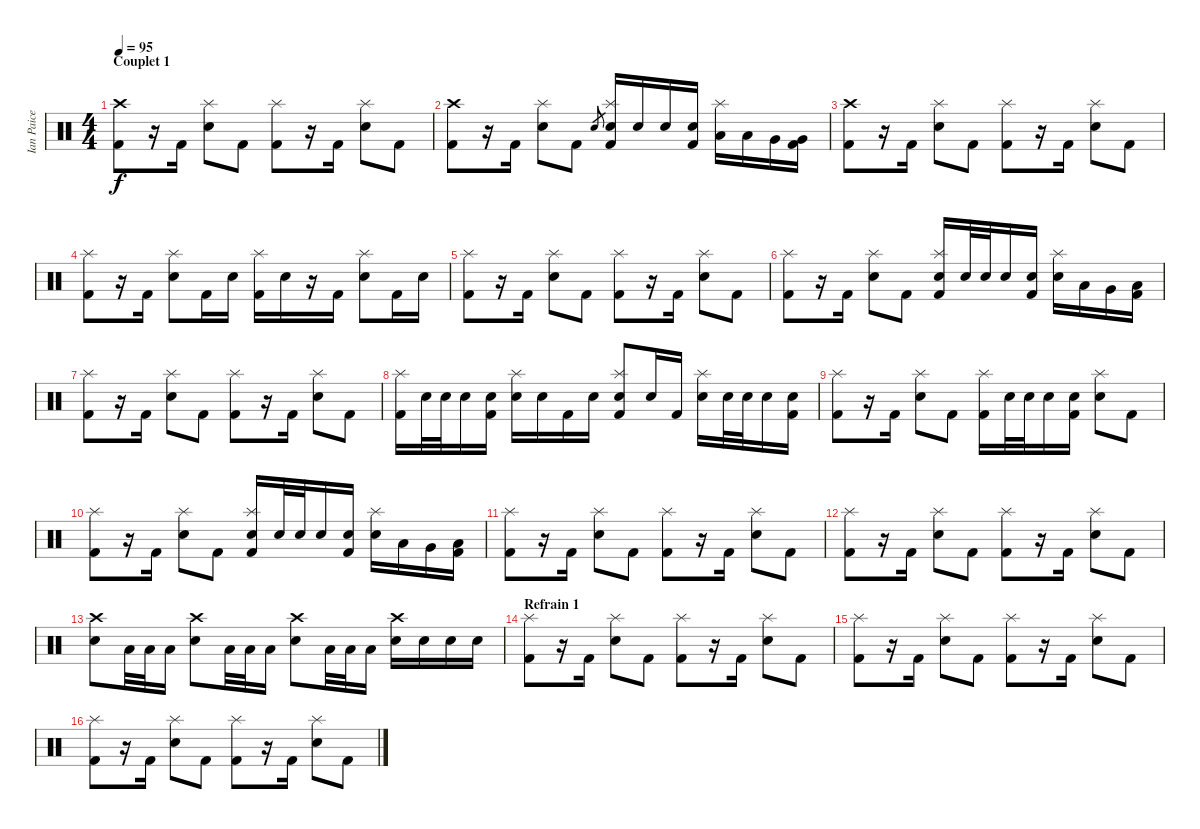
\track ("Ian Paice" "Ian Paice") {instrument percussion}
\staff {score}
\articulation defaults
\ts (4 4)
\section ("" "Couplet 1")
\tempo 95
\clef neutral
\ks c
("Crash high (hit)" "Kick (hit) 2").8{dy f} r.16 "Kick (hit) 2".16 ("Splash (hit)" "Snare (hit) 2").8 "Kick (hit) 2".8 ("Splash (hit)" "Kick (hit) 2").8 r.16 "Kick (hit) 2".16 ("Splash (hit)" "Snare (hit) 2").8 "Kick (hit) 2".8 |
("Crash high (hit)" "Kick (hit) 2").8 r.16 "Kick (hit) 2".16 ("Splash (hit)" "Snare (hit) 2").8 "Kick (hit) 2".8 "Snare (hit) 2".8{gr} ("Splash (hit)" "Snare (hit) 2" "Kick (hit) 2").16 "Snare (hit) 2".16 "Snare (hit) 2".16 ("Snare (hit) 2" "Kick (hit) 2").16 ("Splash (hit)" "Low Floor Tom (hit)").16 "Low Floor Tom (hit)".16 "Very Low Tom (hit)".16 ("Very Low Tom (hit)" "Kick (hit) 2").16 |
("Crash high (hit)" "Kick (hit) 2").8 r.16 "Kick (hit) 2".16 ("Splash (hit)" "Snare (hit) 2").8 "Kick (hit) 2".8 ("Splash (hit)" "Kick (hit) 2").8 r.16 "Kick (hit) 2".16 ("Splash (hit)" "Snare (hit) 2").8 "Kick (hit) 2".8 |
("Splash (hit)" "Kick (hit) 2").8 r.16 "Kick (hit) 2".16 ("Splash (hit)" "Snare (hit) 2").8 "Kick (hit) 2"{x}.16 "Snare (hit) 2".16 ("Splash (hit)" "Kick (hit) 2").16 "Snare (hit) 2".16 r.16 "Kick (hit) 2".16 ("Splash (hit)" "Snare (hit) 2").8 "Kick (hit) 2".16 "Snare (hit) 2".16 |
("Splash (hit)" "Kick (hit) 2").8 r.16 "Kick (hit) 2".16 ("Splash (hit)" "Snare (hit) 2").8 "Kick (hit) 2".8 ("Splash (hit)" "Kick (hit) 2").8 r.16 "Kick (hit) 2".16 ("Splash (hit)" "Snare (hit) 2").8 "Kick (hit) 2".8 |
("Splash (hit)" "Kick (hit) 2").8 r.16 "Kick (hit) 2".16 ("Splash (hit)" "Snare (hit) 2").8 "Kick (hit) 2".8 ("Splash (hit)" "Snare (hit) 2" "Kick (hit) 2").16 "Snare (hit) 2".32 "Snare (hit) 2".32 "Snare (hit) 2".16 ("Snare (hit) 2" "Kick (hit) 2").16 ("Splash (hit)" "Snare (hit) 2").16 "Low Floor Tom (hit)".16 "Very Low Tom (hit)".16 ("Low Tom (hit)" "Kick (hit) 2").16 |
("Splash (hit)" "Kick (hit) 2").8 r.16 "Kick (hit) 2".16 ("Splash (hit)" "Snare (hit) 2").8 "Kick (hit) 2".8 ("Splash (hit)" "Kick (hit) 2").8 r.16 "Kick (hit) 2".16 ("Splash (hit)" "Snare (hit) 2").8 "Kick (hit) 2".8 |
("Splash (hit)" "Kick (hit) 2").16 "Snare (hit) 2".32 "Snare (hit) 2".32 "Snare (hit) 2".16 ("Snare (hit) 2" "Kick (hit) 2").16 ("Splash (hit)" "Snare (hit) 2").16 "Snare (hit) 2".16 "Kick (hit) 2".16 "Snare (hit) 2".16 ("Splash (hit)" "Snare (hit) 2" "Kick (hit) 2").8 "Snare (hit) 2".16 "Kick (hit) 2".16 ("Splash (hit)" "Snare (hit) 2").16 "Snare (hit) 2".32 "Snare (hit) 2".32 "Snare (hit) 2".16 ("Snare (hit) 2" "Kick (hit) 2").16 |
("Splash (hit)" "Kick (hit) 2").8 r.16 "Kick (hit) 2".16 ("Splash (hit)" "Snare (hit) 2").8 "Kick (hit) 2".8 ("Splash (hit)" "Kick (hit) 2").16 "Snare (hit) 2".32 "Snare (hit) 2".32 "Snare (hit) 2".16 ("Snare (hit) 2" "Kick (hit) 2").16 ("Splash (hit)" "Snare (hit) 2").8 "Kick (hit) 2".8 |
("Splash (hit)" "Kick (hit) 2").8 r.16 "Kick (hit) 2".16 ("Splash (hit)" "Snare (hit) 2").8 "Kick (hit) 2".8 ("Splash (hit)" "Snare (hit) 2" "Kick (hit) 2").16 "Snare (hit) 2".32 "Snare (hit) 2".32 "Snare (hit) 2".16 ("Snare (hit) 2" "Kick (hit) 2").16 ("Splash (hit)" "Snare (hit) 2").16 "Low Floor Tom (hit)".16 "Very Low Tom (hit)".16 ("Low Tom (hit)" "Kick (hit) 2").16 |
("Splash (hit)" "Kick (hit) 2").8 r.16 "Kick (hit) 2".16 ("Splash (hit)" "Snare (hit) 2").8 "Kick (hit) 2".8 ("Splash (hit)" "Kick (hit) 2").8 r.16 "Kick (hit) 2".16 ("Splash (hit)" "Snare (hit) 2").8 "Kick (hit) 2".8 |
("Splash (hit)" "Kick (hit) 2").8 r.16 "Kick (hit) 2".16 ("Splash (hit)" "Snare (hit) 2").8 "Kick (hit) 2".8 ("Splash (hit)" "Kick (hit) 2").8 r.16 "Kick (hit) 2".16 ("Splash (hit)" "Snare (hit) 2").8 "Kick (hit) 2".8 |
("Crash high (hit)" "Snare (hit) 2").8 "Low Floor Tom (hit)".32 "Low Floor Tom (hit)".32 "Low Floor Tom (hit)".16 ("Crash high (hit)" "Snare (hit) 2").8 "Low Floor Tom (hit)".32 "Low Floor Tom (hit)".32 "Low Floor Tom (hit)".16 ("Crash high (hit)" "Snare (hit) 2").8 "Low Floor Tom (hit)".32 "Low Floor Tom (hit)".32 "Low Floor Tom (hit)".16 ("Crash high (hit)" "Snare (hit) 2").16 "Snare (hit) 2".16 "Snare (hit) 2".16 "Snare (hit) 2".16 |
\section ("" "Refrain 1")
("Splash (hit)" "Kick (hit) 2").8 r.16 "Kick (hit) 2".16 ("Splash (hit)" "Snare (hit) 2").8 "Kick (hit) 2".8 ("Splash (hit)" "Kick (hit) 2").8 r.16 "Kick (hit) 2".16 ("Splash (hit)" "Snare (hit) 2").8 "Kick (hit) 2".8 |
("Splash (hit)" "Kick (hit) 2").8 r.16 "Kick (hit) 2".16 ("Splash (hit)" "Snare (hit) 2").8 "Kick (hit) 2".8 ("Splash (hit)" "Kick (hit) 2").8 r.16 "Kick (hit) 2".16 ("Splash (hit)" "Snare (hit) 2").8 "Kick (hit) 2".8 |
("Splash (hit)" "Kick (hit) 2").8 r.16 "Kick (hit) 2".16 ("Splash (hit)" "Snare (hit) 2").8 "Kick (hit) 2".8 ("Splash (hit)" "Kick (hit) 2").8 r.16 "Kick (hit) 2".16 ("Splash (hit)" "Snare (hit) 2").8 "Kick (hit) 2".8
